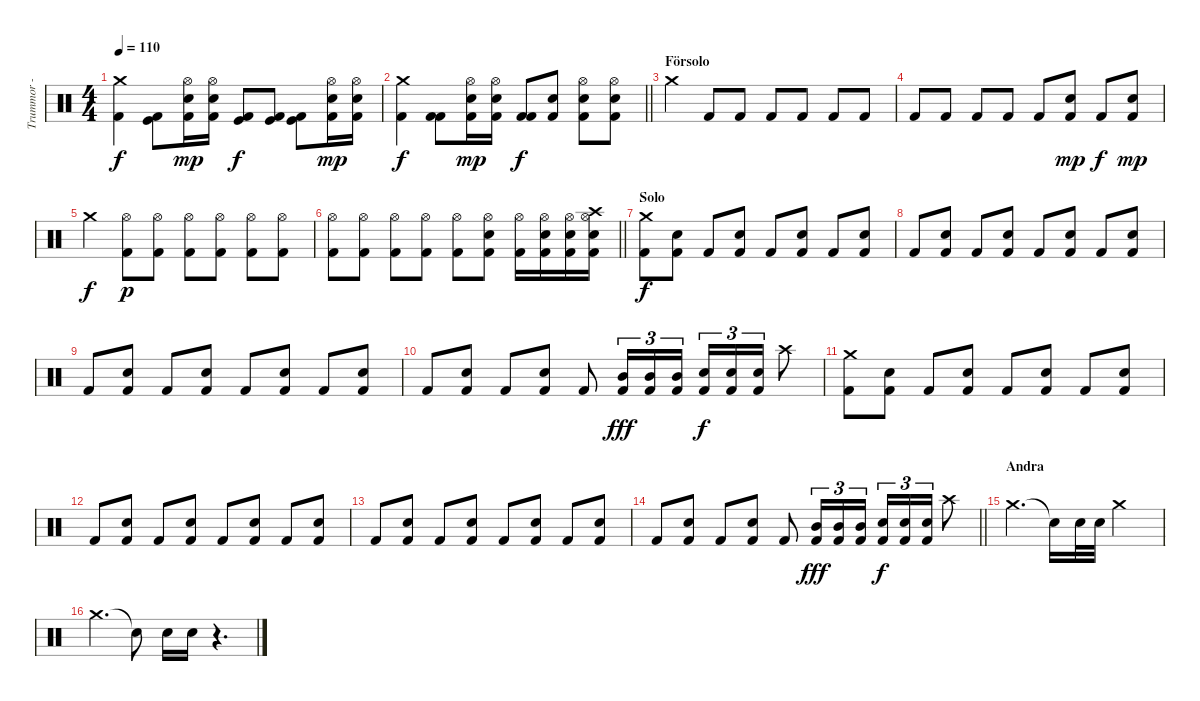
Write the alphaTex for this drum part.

\track ("Trummor - Larzon" "Trummor - ") {instrument percussion}
\staff {score}
\articulation defaults
\ts (4 4)
\tempo 110
\clef neutral
\ks c
("Crash medium (hit)" "Kick (hit) 2").4{dy f} ("Kick (hit)" "Kick (hit) 2").8 ("Snare (hit) 2" "Hi-Hat (open)" "Kick (hit) 2").16{dy mp} ("Snare (hit) 2" "Hi-Hat (open)" "Kick (hit) 2").16 ("Kick (hit)" "Kick (hit) 2").8{dy f} ("Kick (hit)" "Kick (hit) 2").8 ("Kick (hit)" "Kick (hit) 2").8 ("Snare (hit) 2" "Hi-Hat (open)" "Kick (hit) 2").16{dy mp} ("Snare (hit) 2" "Hi-Hat (open)" "Kick (hit) 2").16 |
\barLineRight lightlight
("Crash medium (hit)" "Kick (hit) 2").4{dy f} ("Kick (hit) 2" "Kick (hit) 2").8 ("Snare (hit) 2" "Hi-Hat (open)" "Kick (hit) 2").16{dy mp} ("Snare (hit) 2" "Hi-Hat (open)" "Kick (hit) 2").16 ("Kick (hit) 2" "Kick (hit) 2").8{dy f} ("Snare (hit) 2" "Kick (hit) 2").8 ("Snare (hit) 2" "Hi-Hat (open)" "Kick (hit) 2").8 ("Snare (hit) 2" "Hi-Hat (open)" "Kick (hit) 2").8 |
\section ("" "Försolo")
"Crash medium (hit)".4 "Kick (hit) 2".8 "Kick (hit) 2".8 "Kick (hit) 2".8 "Kick (hit) 2".8 "Kick (hit) 2".8 "Kick (hit) 2".8 |
"Kick (hit) 2".8 "Kick (hit) 2".8 "Kick (hit) 2".8 "Kick (hit) 2".8 "Kick (hit) 2".8 ("Kick (hit) 2" "Snare (hit) 2").8{dy mp} "Kick (hit) 2".8{dy f} ("Kick (hit) 2" "Snare (hit) 2").8{dy mp} |
"Crash medium (hit)".4{dy f} ("Kick (hit) 2" "Hi-Hat (open)").8{dy p} ("Kick (hit) 2" "Hi-Hat (open)").8 ("Kick (hit) 2" "Hi-Hat (open)").8 ("Kick (hit) 2" "Hi-Hat (open)").8 ("Kick (hit) 2" "Hi-Hat (open)").8 ("Kick (hit) 2" "Hi-Hat (open)").8 |
\barLineRight lightlight
("Kick (hit) 2" "Hi-Hat (open)").8 ("Kick (hit) 2" "Hi-Hat (open)").8 ("Kick (hit) 2" "Hi-Hat (open)").8 ("Kick (hit) 2" "Hi-Hat (open)").8 ("Kick (hit) 2" "Hi-Hat (open)").8 ("Kick (hit) 2" "Hi-Hat (open)" "Snare (hit) 2").8 ("Kick (hit) 2" "Hi-Hat (open)").16 ("Kick (hit) 2" "Hi-Hat (open)" "Snare (hit) 2").16 ("Kick (hit) 2" "Hi-Hat (open)" "Snare (hit) 2").16 ("Kick (hit) 2" "Hi-Hat (open)" "Snare (hit) 2" "Crash high (hit)").16 |
\section ("" "Solo")
("Kick (hit) 2" "Crash medium (hit)").8{dy f} ("Kick (hit) 2" "Snare (hit) 2").8 "Kick (hit) 2".8 ("Kick (hit) 2" "Snare (hit) 2").8 "Kick (hit) 2".8 ("Kick (hit) 2" "Snare (hit) 2").8 "Kick (hit) 2".8 ("Kick (hit) 2" "Snare (hit) 2").8 |
"Kick (hit) 2".8 ("Kick (hit) 2" "Snare (hit) 2").8 "Kick (hit) 2".8 ("Kick (hit) 2" "Snare (hit) 2").8 "Kick (hit) 2".8 ("Kick (hit) 2" "Snare (hit) 2").8 "Kick (hit) 2".8 ("Kick (hit) 2" "Snare (hit) 2").8 |
"Kick (hit) 2".8 ("Kick (hit) 2" "Snare (hit) 2").8 "Kick (hit) 2".8 ("Kick (hit) 2" "Snare (hit) 2").8 "Kick (hit) 2".8 ("Kick (hit) 2" "Snare (hit) 2").8 "Kick (hit) 2".8 ("Kick (hit) 2" "Snare (hit) 2").8 |
"Kick (hit) 2".8 ("Kick (hit) 2" "Snare (hit) 2").8 "Kick (hit) 2".8 ("Kick (hit) 2" "Snare (hit) 2").8 "Kick (hit) 2".8 ("Kick (hit) 2" "Mid Tom (hit)").16{tu (3 2) dy fff} ("Kick (hit) 2" "Mid Tom (hit)").16{tu (3 2)} ("Kick (hit) 2" "Mid Tom (hit)").16{tu (3 2)} ("Kick (hit) 2" "Snare (hit) 2").16{tu (3 2) dy f} ("Kick (hit) 2" "Snare (hit) 2").16{tu (3 2)} ("Kick (hit) 2" "Snare (hit) 2").16{tu (3 2)} "Crash high (hit)".8 |
("Kick (hit) 2" "Crash medium (hit)").8 ("Kick (hit) 2" "Snare (hit) 2").8 "Kick (hit) 2".8 ("Kick (hit) 2" "Snare (hit) 2").8 "Kick (hit) 2".8 ("Kick (hit) 2" "Snare (hit) 2").8 "Kick (hit) 2".8 ("Kick (hit) 2" "Snare (hit) 2").8 |
"Kick (hit) 2".8 ("Kick (hit) 2" "Snare (hit) 2").8 "Kick (hit) 2".8 ("Kick (hit) 2" "Snare (hit) 2").8 "Kick (hit) 2".8 ("Kick (hit) 2" "Snare (hit) 2").8 "Kick (hit) 2".8 ("Kick (hit) 2" "Snare (hit) 2").8 |
"Kick (hit) 2".8 ("Kick (hit) 2" "Snare (hit) 2").8 "Kick (hit) 2".8 ("Kick (hit) 2" "Snare (hit) 2").8 "Kick (hit) 2".8 ("Kick (hit) 2" "Snare (hit) 2").8 "Kick (hit) 2".8 ("Kick (hit) 2" "Snare (hit) 2").8 |
\barLineRight lightlight "Kick (hit) 2".8
("Kick (hit) 2" "Snare (hit) 2").8 "Kick (hit) 2".8 ("Kick (hit) 2" "Snare (hit) 2").8 "Kick (hit) 2".8 ("Kick (hit) 2" "Mid Tom (hit)").16{tu (3 2) dy fff} ("Kick (hit) 2" "Mid Tom (hit)").16{tu (3 2)} ("Kick (hit) 2" "Mid Tom (hit)").16{tu (3 2)} ("Kick (hit) 2" "Snare (hit) 2").16{tu (3 2) dy f} ("Kick (hit) 2" "Snare (hit) 2").16{tu (3 2)} ("Kick (hit) 2" "Snare (hit) 2").16{tu (3 2)} "Crash high (hit)".8 |
\section ("" "Andra")
"Crash medium (hit)".4{d} "Snare (hit)"{t}.16 "Snare (hit) 2".32 "Snare (hit) 2".32 "Crash medium (hit)".2 |
"Crash medium (hit)".4{d} "Snare (hit)"{t}.8 "Snare (hit) 2".16 "Snare (hit) 2".16 r.4{d}
